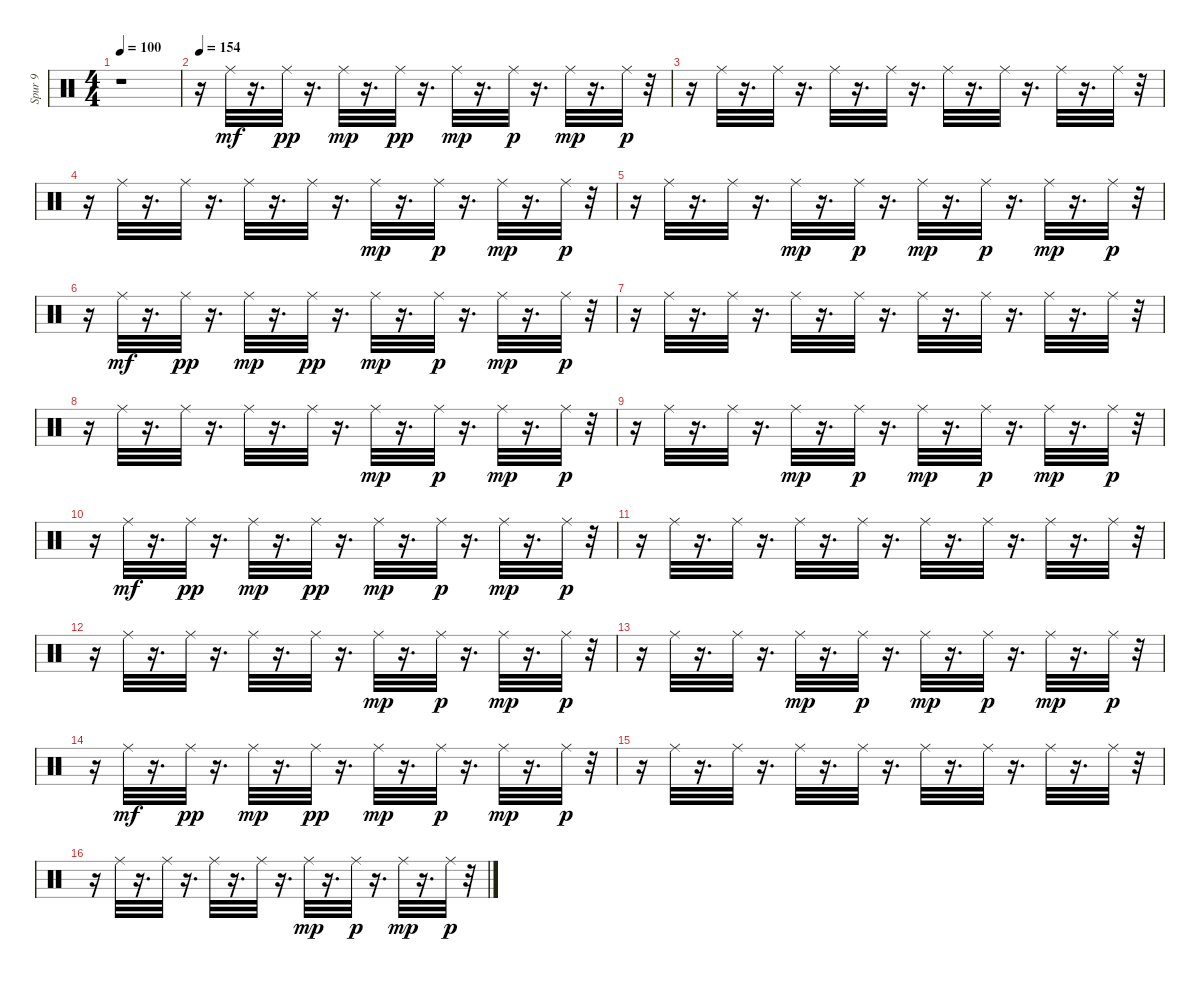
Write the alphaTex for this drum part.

\track ("Spur 9" "Spur 9") {instrument percussion}
\staff {score}
\articulation defaults
\ts (4 4)
\tempo 100
\clef neutral
\ks c
r.1{dy mf} |
\tempo 154
r.16 "Ride (middle)".32 r.16{d} "Ride (middle)".32{dy pp} r.16{d} "Ride (middle)".32{dy mp} r.16{d} "Ride (middle)".32{dy pp} r.16{d} "Ride (middle)".32{dy mp} r.16{d} "Ride (middle)".32{dy p} r.16{d} "Ride (middle)".32{dy mp} r.16{d} "Ride (middle)".32{dy p} r.32 |
r.16 "Ride (middle)".32 r.16{d} "Ride (middle)".32 r.16{d} "Ride (middle)".32 r.16{d} "Ride (middle)".32 r.16{d} "Ride (middle)".32 r.16{d} "Ride (middle)".32 r.16{d} "Ride (middle)".32 r.16{d} "Ride (middle)".32 r.32 |
r.16 "Ride (middle)".32 r.16{d} "Ride (middle)".32 r.16{d} "Ride (middle)".32 r.16{d} "Ride (middle)".32 r.16{d} "Ride (middle)".32{dy mp} r.16{d} "Ride (middle)".32{dy p} r.16{d} "Ride (middle)".32{dy mp} r.16{d} "Ride (middle)".32{dy p} r.32 |
r.16 "Ride (middle)".32 r.16{d} "Ride (middle)".32 r.16{d} "Ride (middle)".32{dy mp} r.16{d} "Ride (middle)".32{dy p} r.16{d} "Ride (middle)".32{dy mp} r.16{d} "Ride (middle)".32{dy p} r.16{d} "Ride (middle)".32{dy mp} r.16{d} "Ride (middle)".32{dy p} r.32 |
r.16 "Ride (middle)".32{dy mf} r.16{d} "Ride (middle)".32{dy pp} r.16{d} "Ride (middle)".32{dy mp} r.16{d} "Ride (middle)".32{dy pp} r.16{d} "Ride (middle)".32{dy mp} r.16{d} "Ride (middle)".32{dy p} r.16{d} "Ride (middle)".32{dy mp} r.16{d} "Ride (middle)".32{dy p} r.32 |
r.16 "Ride (middle)".32 r.16{d} "Ride (middle)".32 r.16{d} "Ride (middle)".32 r.16{d} "Ride (middle)".32 r.16{d} "Ride (middle)".32 r.16{d} "Ride (middle)".32 r.16{d} "Ride (middle)".32 r.16{d} "Ride (middle)".32 r.32 |
r.16 "Ride (middle)".32 r.16{d} "Ride (middle)".32 r.16{d} "Ride (middle)".32 r.16{d} "Ride (middle)".32 r.16{d} "Ride (middle)".32{dy mp} r.16{d} "Ride (middle)".32{dy p} r.16{d} "Ride (middle)".32{dy mp} r.16{d} "Ride (middle)".32{dy p} r.32 |
r.16 "Ride (middle)".32 r.16{d} "Ride (middle)".32 r.16{d} "Ride (middle)".32{dy mp} r.16{d} "Ride (middle)".32{dy p} r.16{d} "Ride (middle)".32{dy mp} r.16{d} "Ride (middle)".32{dy p} r.16{d} "Ride (middle)".32{dy mp} r.16{d} "Ride (middle)".32{dy p} r.32 |
r.16 "Ride (middle)".32{dy mf} r.16{d} "Ride (middle)".32{dy pp} r.16{d} "Ride (middle)".32{dy mp} r.16{d} "Ride (middle)".32{dy pp} r.16{d} "Ride (middle)".32{dy mp} r.16{d} "Ride (middle)".32{dy p} r.16{d} "Ride (middle)".32{dy mp} r.16{d} "Ride (middle)".32{dy p} r.32 |
r.16 "Ride (middle)".32 r.16{d} "Ride (middle)".32 r.16{d} "Ride (middle)".32 r.16{d} "Ride (middle)".32 r.16{d} "Ride (middle)".32 r.16{d} "Ride (middle)".32 r.16{d} "Ride (middle)".32 r.16{d} "Ride (middle)".32 r.32 |
r.16 "Ride (middle)".32 r.16{d} "Ride (middle)".32 r.16{d} "Ride (middle)".32 r.16{d} "Ride (middle)".32 r.16{d} "Ride (middle)".32{dy mp} r.16{d} "Ride (middle)".32{dy p} r.16{d} "Ride (middle)".32{dy mp} r.16{d} "Ride (middle)".32{dy p} r.32 |
r.16 "Ride (middle)".32 r.16{d} "Ride (middle)".32 r.16{d} "Ride (middle)".32{dy mp} r.16{d} "Ride (middle)".32{dy p} r.16{d} "Ride (middle)".32{dy mp} r.16{d} "Ride (middle)".32{dy p} r.16{d} "Ride (middle)".32{dy mp} r.16{d} "Ride (middle)".32{dy p} r.32 |
r.16 "Ride (middle)".32{dy mf} r.16{d} "Ride (middle)".32{dy pp} r.16{d} "Ride (middle)".32{dy mp} r.16{d} "Ride (middle)".32{dy pp} r.16{d} "Ride (middle)".32{dy mp} r.16{d} "Ride (middle)".32{dy p} r.16{d} "Ride (middle)".32{dy mp} r.16{d} "Ride (middle)".32{dy p} r.32 |
r.16 "Ride (middle)".32 r.16{d} "Ride (middle)".32 r.16{d} "Ride (middle)".32 r.16{d} "Ride (middle)".32 r.16{d} "Ride (middle)".32 r.16{d} "Ride (middle)".32 r.16{d} "Ride (middle)".32 r.16{d} "Ride (middle)".32 r.32 |
r.16 "Ride (middle)".32 r.16{d} "Ride (middle)".32 r.16{d} "Ride (middle)".32 r.16{d} "Ride (middle)".32 r.16{d} "Ride (middle)".32{dy mp} r.16{d} "Ride (middle)".32{dy p} r.16{d} "Ride (middle)".32{dy mp} r.16{d} "Ride (middle)".32{dy p} r.32
